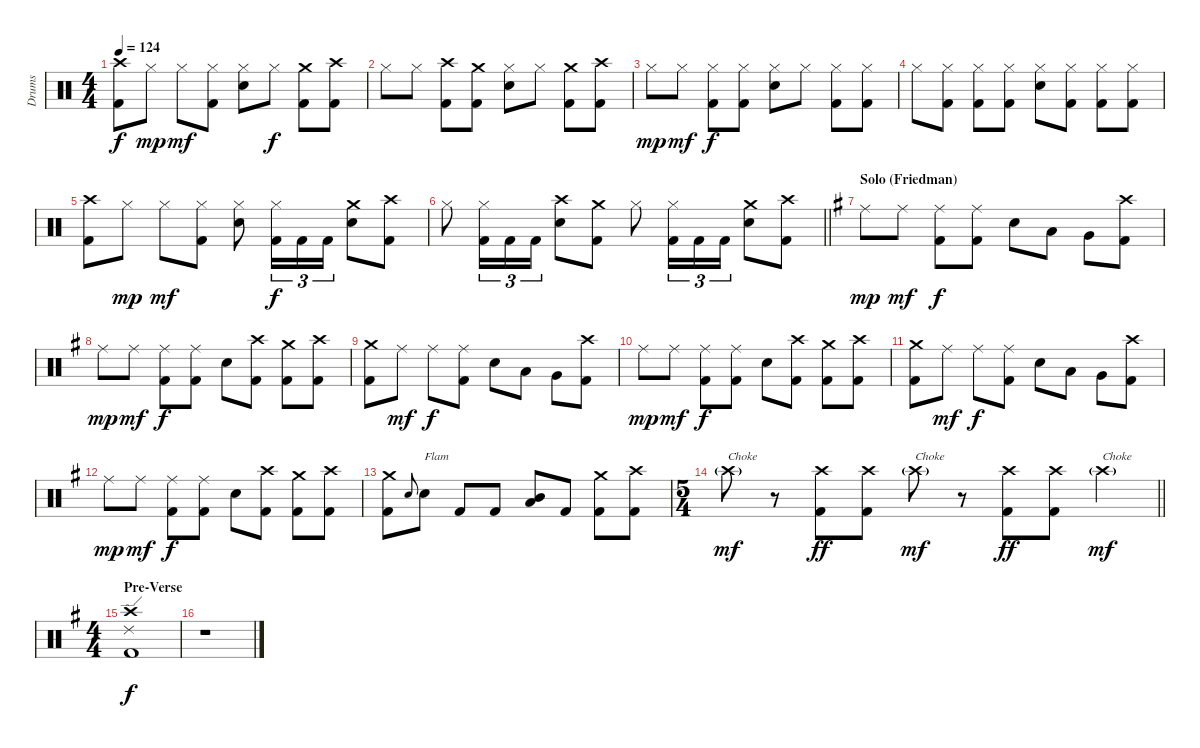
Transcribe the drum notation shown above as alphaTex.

\track ("Drums" "Drums") {instrument percussion}
\staff {score}
\articulation defaults
\ts (4 4)
\tempo 124
\clef neutral
\ks c
("Crash high (hit)" "Kick (hit) 2").8{dy f} "Hi-Hat (closed)".8{dy mp} "Hi-Hat (closed)".8{dy mf} ("Hi-Hat (closed)" "Kick (hit) 2").8 ("Hi-Hat (closed)" "Snare (hit) 2").8 "Hi-Hat (closed)".8{dy f} ("Crash medium (hit)" "Kick (hit) 2").8 ("Crash high (hit)" "Kick (hit) 2").8 |
"Hi-Hat (closed)".8 "Hi-Hat (closed)".8 ("Crash high (hit)" "Kick (hit) 2").8 ("Crash medium (hit)" "Kick (hit) 2").8 ("Hi-Hat (closed)" "Snare (hit) 2").8 "Hi-Hat (closed)".8 ("Crash medium (hit)" "Kick (hit) 2").8 ("Crash high (hit)" "Kick (hit) 2").8 |
"Hi-Hat (closed)".8{dy mp} "Hi-Hat (closed)".8{dy mf} ("Hi-Hat (closed)" "Kick (hit) 2").8{dy f} ("Hi-Hat (closed)" "Kick (hit) 2").8 ("Hi-Hat (closed)" "Snare (hit) 2").8 "Hi-Hat (closed)".8 ("Hi-Hat (closed)" "Kick (hit) 2").8 ("Hi-Hat (closed)" "Kick (hit) 2").8 |
"Hi-Hat (closed)".8 ("Hi-Hat (closed)" "Kick (hit) 2").8 ("Hi-Hat (closed)" "Kick (hit) 2").8 ("Hi-Hat (closed)" "Kick (hit) 2").8 ("Hi-Hat (closed)" "Snare (hit) 2").8 ("Hi-Hat (closed)" "Kick (hit) 2").8 ("Hi-Hat (closed)" "Kick (hit) 2").8 ("Hi-Hat (closed)" "Kick (hit) 2").8 |
("Crash high (hit)" "Kick (hit) 2").8 "Hi-Hat (closed)".8{dy mp} "Hi-Hat (closed)".8{dy mf} ("Hi-Hat (closed)" "Kick (hit) 2").8 ("Hi-Hat (closed)" "Snare (hit) 2").8 ("Hi-Hat (closed)" "Kick (hit) 2").16{tu (3 2) dy f} "Kick (hit) 2".16{tu (3 2)} "Kick (hit) 2".16{tu (3 2)} ("Crash medium (hit)" "Snare (hit) 2").8 ("Crash high (hit)" "Kick (hit) 2").8 |
\barLineRight lightlight "Hi-Hat (closed)".8
("Hi-Hat (closed)" "Kick (hit) 2").16{tu (3 2)} "Kick (hit) 2".16{tu (3 2)} "Kick (hit) 2".16{tu (3 2)} ("Crash high (hit)" "Snare (hit) 2").8 ("Crash medium (hit)" "Kick (hit) 2").8 "Hi-Hat (closed)".8 ("Hi-Hat (closed)" "Kick (hit) 2").16{tu (3 2)} "Kick (hit) 2".16{tu (3 2)} "Kick (hit) 2".16{tu (3 2)} ("Crash medium (hit)" "Snare (hit) 2").8 ("Crash high (hit)" "Kick (hit) 2").8 |
\section ("" "Solo (Friedman)")
\ks g "Ride (middle)".8{dy mp} "Ride (middle)".8{dy mf}
("Ride (middle)" "Kick (hit) 2").8{dy f} ("Ride (middle)" "Kick (hit) 2").8 "Snare (hit) 2".8 "Low Tom (hit)".8 "Very Low Tom (hit)".8 ("Crash high (hit)" "Kick (hit) 2").8 |
"Ride (middle)".8{dy mp} "Ride (middle)".8{dy mf} ("Ride (middle)" "Kick (hit) 2").8{dy f} ("Ride (middle)" "Kick (hit) 2").8 "Snare (hit) 2".8 ("Crash high (hit)" "Kick (hit) 2").8 ("Crash medium (hit)" "Kick (hit) 2").8 ("Crash high (hit)" "Kick (hit) 2").8 |
("Crash medium (hit)" "Kick (hit) 2").8 "Ride (middle)".8{dy mf} "Ride (middle)".8{dy f} ("Ride (middle)" "Kick (hit) 2").8 "Snare (hit) 2".8 "Low Tom (hit)".8 "Very Low Tom (hit)".8 ("Crash high (hit)" "Kick (hit) 2").8 |
"Ride (middle)".8{dy mp} "Ride (middle)".8{dy mf} ("Ride (middle)" "Kick (hit) 2").8{dy f} ("Ride (middle)" "Kick (hit) 2").8 "Snare (hit) 2".8 ("Crash high (hit)" "Kick (hit) 2").8 ("Crash medium (hit)" "Kick (hit) 2").8 ("Crash high (hit)" "Kick (hit) 2").8 |
("Crash medium (hit)" "Kick (hit) 2").8 "Ride (middle)".8{dy mf} "Ride (middle)".8{dy f} ("Ride (middle)" "Kick (hit) 2").8 "Snare (hit) 2".8 "Low Tom (hit)".8 "Very Low Tom (hit)".8 ("Crash high (hit)" "Kick (hit) 2").8 |
"Ride (middle)".8{dy mp} "Ride (middle)".8{dy mf} ("Ride (middle)" "Kick (hit) 2").8{dy f} ("Ride (middle)" "Kick (hit) 2").8 "Snare (hit) 2".8 ("Crash high (hit)" "Kick (hit) 2").8 ("Crash medium (hit)" "Kick (hit) 2").8 ("Crash high (hit)" "Kick (hit) 2").8 |
("Crash medium (hit)" "Kick (hit) 2").8 "Snare (hit) 2".8{gr onbeat} "Snare (hit) 2".8{txt "Flam"} "Kick (hit) 2".8 "Kick (hit) 2".8 ("Mid Tom (hit)" "Low Tom (hit)").8 "Kick (hit) 2".8 ("Crash medium (hit)" "Kick (hit) 2").8 ("Crash high (hit)" "Kick (hit) 2").8 |
\ts (5 4)
\barLineRight lightlight "Crash high (hit)"{g}.8{txt "Choke" dy mf volume 0}
r.8 ("Crash high (hit)" "Kick (hit) 2").8{dy ff volume 16} ("Crash high (hit)" "Kick (hit) 2").8 "Crash high (hit)"{g}.8{txt "Choke" dy mf volume 0} r.8 ("Crash high (hit)" "Kick (hit) 2").8{dy ff volume 16} ("Crash high (hit)" "Kick (hit) 2").8 "Crash high (hit)"{g}.4{txt "Choke" dy mf volume 0} |
\ts (4 4)
\section ("" "Pre-Verse")
("Crash high (hit)" "Ride (edge) 2" "Kick (hit) 2").1{dy f volume 16} |
r.1
